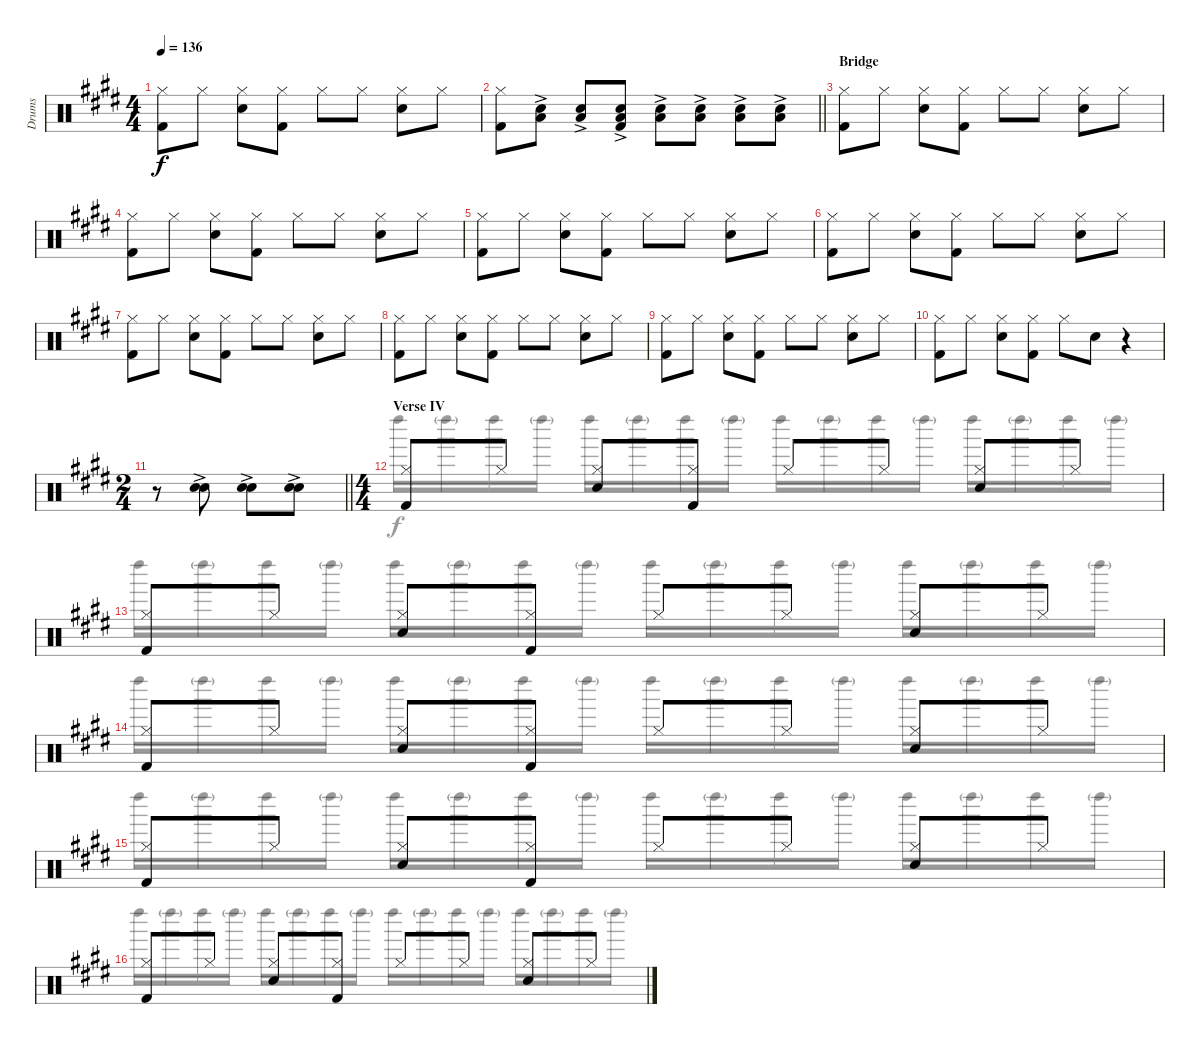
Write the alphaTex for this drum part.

\track ("Drums" "Drums") {instrument percussion}
\staff {score}
\articulation defaults
\voice
\ts (4 4)
\tempo 136
\clef neutral
\ks e
("Hi-Hat (closed)" "Kick (hit) 2").8{dy f} "Hi-Hat (closed)".8 ("Hi-Hat (closed)" "Snare (hit) 2").8 ("Hi-Hat (closed)" "Kick (hit) 2").8 "Hi-Hat (closed)".8 "Hi-Hat (closed)".8 ("Hi-Hat (closed)" "Snare (hit) 2").8 "Hi-Hat (closed)".8 |
\barLineRight lightlight
("Hi-Hat (closed)" "Kick (hit) 2").8 ("Low Tom (hit)"{ac} "Snare (hit) 2"{ac}).8 ("Low Tom (hit)"{ac} "Snare (hit) 2"{ac}).8 ("Low Tom (hit)"{ac} "Snare (hit) 2"{ac} "Kick (hit) 2"{ac}).8 ("Low Tom (hit)"{ac} "Snare (hit) 2"{ac}).8 ("Low Tom (hit)"{ac} "Snare (hit) 2"{ac}).8 ("Low Tom (hit)"{ac} "Snare (hit) 2"{ac}).8 ("Low Tom (hit)"{ac} "Snare (hit) 2"{ac}).8 |
\section ("" "Bridge")
("Hi-Hat (closed)" "Kick (hit) 2").8 "Hi-Hat (closed)".8 ("Hi-Hat (closed)" "Snare (hit) 2").8 ("Hi-Hat (closed)" "Kick (hit) 2").8 "Hi-Hat (closed)".8 "Hi-Hat (closed)".8 ("Hi-Hat (closed)" "Snare (hit) 2").8 "Hi-Hat (closed)".8 |
("Hi-Hat (closed)" "Kick (hit) 2").8 "Hi-Hat (closed)".8 ("Hi-Hat (closed)" "Snare (hit) 2").8 ("Hi-Hat (closed)" "Kick (hit) 2").8 "Hi-Hat (closed)".8 "Hi-Hat (closed)".8 ("Hi-Hat (closed)" "Snare (hit) 2").8 "Hi-Hat (closed)".8 |
("Hi-Hat (closed)" "Kick (hit) 2").8 "Hi-Hat (closed)".8 ("Hi-Hat (closed)" "Snare (hit) 2").8 ("Hi-Hat (closed)" "Kick (hit) 2").8 "Hi-Hat (closed)".8 "Hi-Hat (closed)".8 ("Hi-Hat (closed)" "Snare (hit) 2").8 "Hi-Hat (closed)".8 |
("Hi-Hat (closed)" "Kick (hit) 2").8 "Hi-Hat (closed)".8 ("Hi-Hat (closed)" "Snare (hit) 2").8 ("Hi-Hat (closed)" "Kick (hit) 2").8 "Hi-Hat (closed)".8 "Hi-Hat (closed)".8 ("Hi-Hat (closed)" "Snare (hit) 2").8 "Hi-Hat (closed)".8 |
("Hi-Hat (closed)" "Kick (hit) 2").8 "Hi-Hat (closed)".8 ("Hi-Hat (closed)" "Snare (hit) 2").8 ("Hi-Hat (closed)" "Kick (hit) 2").8 "Hi-Hat (closed)".8 "Hi-Hat (closed)".8 ("Hi-Hat (closed)" "Snare (hit) 2").8 "Hi-Hat (closed)".8 |
("Hi-Hat (closed)" "Kick (hit) 2").8 "Hi-Hat (closed)".8 ("Hi-Hat (closed)" "Snare (hit) 2").8 ("Hi-Hat (closed)" "Kick (hit) 2").8 "Hi-Hat (closed)".8 "Hi-Hat (closed)".8 ("Hi-Hat (closed)" "Snare (hit) 2").8 "Hi-Hat (closed)".8 |
("Hi-Hat (closed)" "Kick (hit) 2").8 "Hi-Hat (closed)".8 ("Hi-Hat (closed)" "Snare (hit) 2").8 ("Hi-Hat (closed)" "Kick (hit) 2").8 "Hi-Hat (closed)".8 "Hi-Hat (closed)".8 ("Hi-Hat (closed)" "Snare (hit) 2").8 "Hi-Hat (closed)".8 |
("Hi-Hat (closed)" "Kick (hit) 2").8 "Hi-Hat (closed)".8 ("Hi-Hat (closed)" "Snare (hit) 2").8 ("Hi-Hat (closed)" "Kick (hit) 2").8 "Hi-Hat (closed)".8 "Snare (hit) 2".8 r.4 |
\ts (2 4)
\barLineRight lightlight
r.8 ("Electric Snare (hit)"{ac} "Snare (hit) 2"{ac}).8 ("Electric Snare (hit)"{ac} "Snare (hit) 2"{ac}).8 ("Electric Snare (hit)"{ac} "Snare (hit) 2"{ac}).8 |
\ts (4 4)
\section ("" "Verse IV")
("Hi-Hat (closed)" "Kick (hit) 2").8 "Hi-Hat (closed)".8 ("Hi-Hat (closed)" "Snare (hit) 2").8 ("Hi-Hat (closed)" "Kick (hit) 2").8 "Hi-Hat (closed)".8 "Hi-Hat (closed)".8 ("Hi-Hat (closed)" "Snare (hit) 2").8 "Hi-Hat (closed)".8 |
("Hi-Hat (closed)" "Kick (hit) 2").8 "Hi-Hat (closed)".8 ("Hi-Hat (closed)" "Snare (hit) 2").8 ("Hi-Hat (closed)" "Kick (hit) 2").8 "Hi-Hat (closed)".8 "Hi-Hat (closed)".8 ("Hi-Hat (closed)" "Snare (hit) 2").8 "Hi-Hat (closed)".8 |
("Hi-Hat (closed)" "Kick (hit) 2").8 "Hi-Hat (closed)".8 ("Hi-Hat (closed)" "Snare (hit) 2").8 ("Hi-Hat (closed)" "Kick (hit) 2").8 "Hi-Hat (closed)".8 "Hi-Hat (closed)".8 ("Hi-Hat (closed)" "Snare (hit) 2").8 "Hi-Hat (closed)".8 |
("Hi-Hat (closed)" "Kick (hit) 2").8 "Hi-Hat (closed)".8 ("Hi-Hat (closed)" "Snare (hit) 2").8 ("Hi-Hat (closed)" "Kick (hit) 2").8 "Hi-Hat (closed)".8 "Hi-Hat (closed)".8 ("Hi-Hat (closed)" "Snare (hit) 2").8 "Hi-Hat (closed)".8 |
("Hi-Hat (closed)" "Kick (hit) 2").8 "Hi-Hat (closed)".8 ("Hi-Hat (closed)" "Snare (hit) 2").8 ("Hi-Hat (closed)" "Kick (hit) 2").8 "Hi-Hat (closed)".8 "Hi-Hat (closed)".8 ("Hi-Hat (closed)" "Snare (hit) 2").8 "Hi-Hat (closed)".8
\voice
\clef neutral
\ottava regular
\simile none
\ks e
|
\barLineRight lightlight
|
|
|
|
|
|
|
|
|
\barLineRight lightlight
|
"Left Maraca (hit)".16 "Left Maraca (hit)"{g}.16 "Left Maraca (hit)".16 "Left Maraca (hit)"{g}.16 "Left Maraca (hit)".16 "Left Maraca (hit)"{g}.16 "Left Maraca (hit)".16 "Left Maraca (hit)"{g}.16 "Left Maraca (hit)".16 "Left Maraca (hit)"{g}.16 "Left Maraca (hit)".16 "Left Maraca (hit)"{g}.16 "Left Maraca (hit)".16 "Left Maraca (hit)"{g}.16 "Left Maraca (hit)".16 "Left Maraca (hit)"{g}.16 |
"Left Maraca (hit)".16 "Left Maraca (hit)"{g}.16 "Left Maraca (hit)".16 "Left Maraca (hit)"{g}.16 "Left Maraca (hit)".16 "Left Maraca (hit)"{g}.16 "Left Maraca (hit)".16 "Left Maraca (hit)"{g}.16 "Left Maraca (hit)".16 "Left Maraca (hit)"{g}.16 "Left Maraca (hit)".16 "Left Maraca (hit)"{g}.16 "Left Maraca (hit)".16 "Left Maraca (hit)"{g}.16 "Left Maraca (hit)".16 "Left Maraca (hit)"{g}.16 |
"Left Maraca (hit)".16 "Left Maraca (hit)"{g}.16 "Left Maraca (hit)".16 "Left Maraca (hit)"{g}.16 "Left Maraca (hit)".16 "Left Maraca (hit)"{g}.16 "Left Maraca (hit)".16 "Left Maraca (hit)"{g}.16 "Left Maraca (hit)".16 "Left Maraca (hit)"{g}.16 "Left Maraca (hit)".16 "Left Maraca (hit)"{g}.16 "Left Maraca (hit)".16 "Left Maraca (hit)"{g}.16 "Left Maraca (hit)".16 "Left Maraca (hit)"{g}.16 |
"Left Maraca (hit)".16 "Left Maraca (hit)"{g}.16 "Left Maraca (hit)".16 "Left Maraca (hit)"{g}.16 "Left Maraca (hit)".16 "Left Maraca (hit)"{g}.16 "Left Maraca (hit)".16 "Left Maraca (hit)"{g}.16 "Left Maraca (hit)".16 "Left Maraca (hit)"{g}.16 "Left Maraca (hit)".16 "Left Maraca (hit)"{g}.16 "Left Maraca (hit)".16 "Left Maraca (hit)"{g}.16 "Left Maraca (hit)".16 "Left Maraca (hit)"{g}.16 |
"Left Maraca (hit)".16 "Left Maraca (hit)"{g}.16 "Left Maraca (hit)".16 "Left Maraca (hit)"{g}.16 "Left Maraca (hit)".16 "Left Maraca (hit)"{g}.16 "Left Maraca (hit)".16 "Left Maraca (hit)"{g}.16 "Left Maraca (hit)".16 "Left Maraca (hit)"{g}.16 "Left Maraca (hit)".16 "Left Maraca (hit)"{g}.16 "Left Maraca (hit)".16 "Left Maraca (hit)"{g}.16 "Left Maraca (hit)".16 "Left Maraca (hit)"{g}.16
